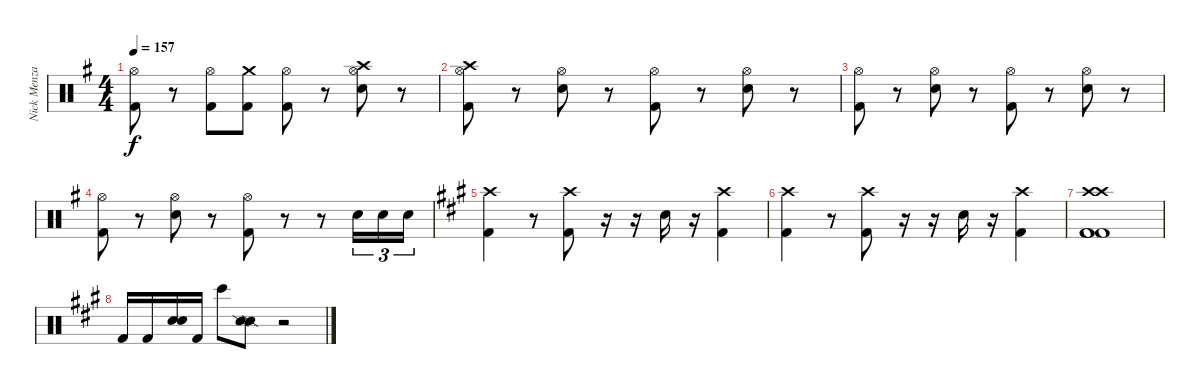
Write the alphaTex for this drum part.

\track ("Nick Menza" "Nick Menza") {instrument percussion}
\staff {score}
\articulation defaults
\ts (4 4)
\tempo 157
\clef neutral
\ks g
("Hi-Hat (open)" "Kick (hit) 2").8{dy f} r.8 ("Hi-Hat (open)" "Kick (hit) 2").8 ("Kick (hit) 2" "Crash medium (hit)").8 ("Hi-Hat (open)" "Kick (hit) 2").8 r.8 ("Hi-Hat (open)" "Snare (hit) 2" "Crash high (hit)").8 r.8 |
("Hi-Hat (open)" "Kick (hit) 2" "Crash high (hit)").8 r.8 ("Hi-Hat (open)" "Snare (hit) 2").8 r.8 ("Hi-Hat (open)" "Kick (hit) 2").8 r.8 ("Hi-Hat (open)" "Snare (hit) 2").8 r.8 |
("Hi-Hat (open)" "Kick (hit) 2").8 r.8 ("Hi-Hat (open)" "Snare (hit) 2").8 r.8 ("Hi-Hat (open)" "Kick (hit) 2").8 r.8 ("Hi-Hat (open)" "Snare (hit) 2").8 r.8 |
("Hi-Hat (open)" "Kick (hit) 2").8 r.8 ("Hi-Hat (open)" "Snare (hit) 2").8 r.8 ("Hi-Hat (open)" "Kick (hit) 2").8 r.8 r.8 "Snare (hit) 2".16{tu (3 2)} "Snare (hit) 2".16{tu (3 2)} "Snare (hit) 2".16{tu (3 2)} |
\ks a
("Crash high (hit)" "Kick (hit) 2").4 r.8 ("Crash high (hit)" "Kick (hit) 2").8 r.16 r.16 "Snare (hit) 2".16 r.16 ("Kick (hit) 2" "Crash high (hit)").4 |
("Crash high (hit)" "Kick (hit) 2").4 r.8 ("Crash high (hit)" "Kick (hit) 2").8 r.16 r.16 "Snare (hit) 2".16 r.16 ("Kick (hit) 2" "Crash high (hit)").4 |
("Crash high (hit)" "Kick (hit) 2" "Kick (hit) 2" "Kick (hit) 2" "Crash high (hit)").1 |
"Kick (hit) 2".16 "Kick (hit) 2".16 ("Snare (hit) 2" "Snare (hit) 2").16 "Kick (hit) 2".16 "Bongo High (hit)".8 ("Snare (side stick) 2" "Snare (side stick) 2").8 r.2
